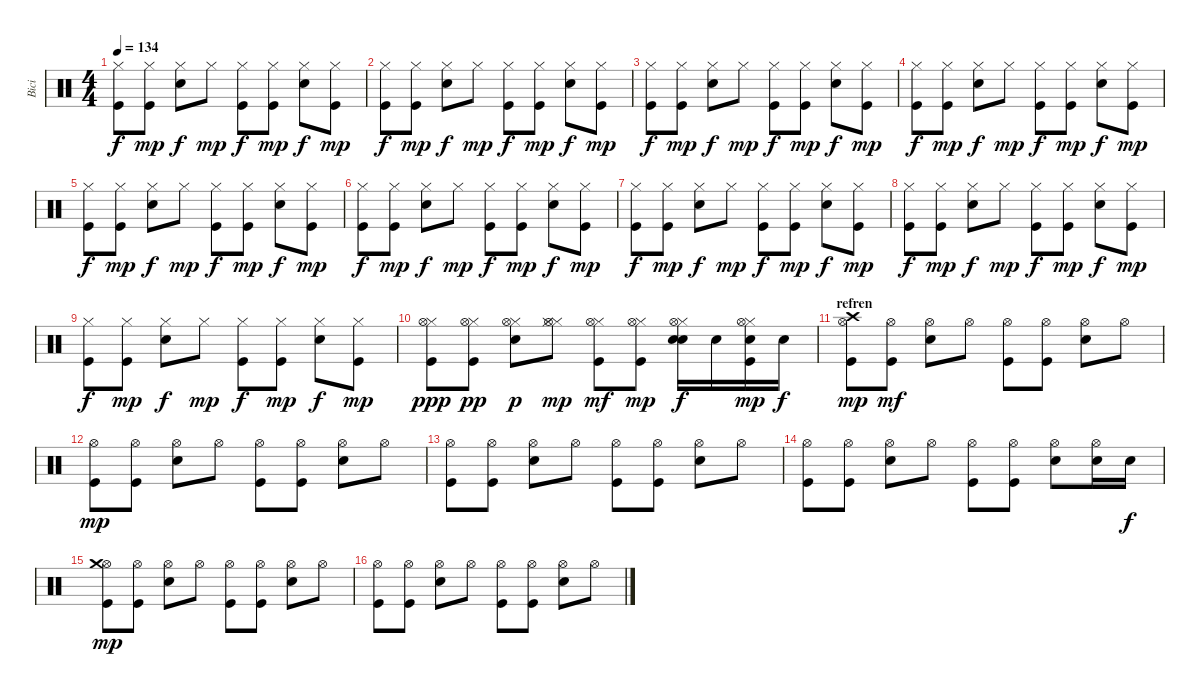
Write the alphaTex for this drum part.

\track ("Bici" "Bici") {instrument percussion}
\staff {score}
\articulation defaults
\ts (4 4)
\tempo 134
\clef neutral
\ks c
("Kick (hit)" "Hi-Hat (closed)").8{dy f} ("Kick (hit)" "Hi-Hat (closed)").8{dy mp} ("Snare (hit) 2" "Hi-Hat (closed)").8{dy f} "Hi-Hat (closed)".8{dy mp} ("Kick (hit)" "Hi-Hat (closed)").8{dy f} ("Kick (hit)" "Hi-Hat (closed)").8{dy mp} ("Snare (hit) 2" "Hi-Hat (closed)").8{dy f} ("Kick (hit)" "Hi-Hat (closed)").8{dy mp} |
("Kick (hit)" "Hi-Hat (closed)").8{dy f} ("Kick (hit)" "Hi-Hat (closed)").8{dy mp} ("Snare (hit) 2" "Hi-Hat (closed)").8{dy f} "Hi-Hat (closed)".8{dy mp} ("Kick (hit)" "Hi-Hat (closed)").8{dy f} ("Kick (hit)" "Hi-Hat (closed)").8{dy mp} ("Snare (hit) 2" "Hi-Hat (closed)").8{dy f} ("Kick (hit)" "Hi-Hat (closed)").8{dy mp} |
("Kick (hit)" "Hi-Hat (closed)").8{dy f} ("Kick (hit)" "Hi-Hat (closed)").8{dy mp} ("Snare (hit) 2" "Hi-Hat (closed)").8{dy f} "Hi-Hat (closed)".8{dy mp} ("Kick (hit)" "Hi-Hat (closed)").8{dy f} ("Kick (hit)" "Hi-Hat (closed)").8{dy mp} ("Snare (hit) 2" "Hi-Hat (closed)").8{dy f} ("Kick (hit)" "Hi-Hat (closed)").8{dy mp} |
("Kick (hit)" "Hi-Hat (closed)").8{dy f} ("Kick (hit)" "Hi-Hat (closed)").8{dy mp} ("Snare (hit) 2" "Hi-Hat (closed)").8{dy f} "Hi-Hat (closed)".8{dy mp} ("Kick (hit)" "Hi-Hat (closed)").8{dy f} ("Kick (hit)" "Hi-Hat (closed)").8{dy mp} ("Snare (hit) 2" "Hi-Hat (closed)").8{dy f} ("Kick (hit)" "Hi-Hat (closed)").8{dy mp} |
("Kick (hit)" "Hi-Hat (closed)").8{dy f} ("Kick (hit)" "Hi-Hat (closed)").8{dy mp} ("Snare (hit) 2" "Hi-Hat (closed)").8{dy f} "Hi-Hat (closed)".8{dy mp} ("Kick (hit)" "Hi-Hat (closed)").8{dy f} ("Kick (hit)" "Hi-Hat (closed)").8{dy mp} ("Snare (hit) 2" "Hi-Hat (closed)").8{dy f} ("Kick (hit)" "Hi-Hat (closed)").8{dy mp} |
("Kick (hit)" "Hi-Hat (closed)").8{dy f} ("Kick (hit)" "Hi-Hat (closed)").8{dy mp} ("Snare (hit) 2" "Hi-Hat (closed)").8{dy f} "Hi-Hat (closed)".8{dy mp} ("Kick (hit)" "Hi-Hat (closed)").8{dy f} ("Kick (hit)" "Hi-Hat (closed)").8{dy mp} ("Snare (hit) 2" "Hi-Hat (closed)").8{dy f} ("Kick (hit)" "Hi-Hat (closed)").8{dy mp} |
("Kick (hit)" "Hi-Hat (closed)").8{dy f} ("Kick (hit)" "Hi-Hat (closed)").8{dy mp} ("Snare (hit) 2" "Hi-Hat (closed)").8{dy f} "Hi-Hat (closed)".8{dy mp} ("Kick (hit)" "Hi-Hat (closed)").8{dy f} ("Kick (hit)" "Hi-Hat (closed)").8{dy mp} ("Snare (hit) 2" "Hi-Hat (closed)").8{dy f} ("Kick (hit)" "Hi-Hat (closed)").8{dy mp} |
("Kick (hit)" "Hi-Hat (closed)").8{dy f} ("Kick (hit)" "Hi-Hat (closed)").8{dy mp} ("Snare (hit) 2" "Hi-Hat (closed)").8{dy f} "Hi-Hat (closed)".8{dy mp} ("Kick (hit)" "Hi-Hat (closed)").8{dy f} ("Kick (hit)" "Hi-Hat (closed)").8{dy mp} ("Snare (hit) 2" "Hi-Hat (closed)").8{dy f} ("Kick (hit)" "Hi-Hat (closed)").8{dy mp} |
("Kick (hit)" "Hi-Hat (closed)").8{dy f} ("Kick (hit)" "Hi-Hat (closed)").8{dy mp} ("Snare (hit) 2" "Hi-Hat (closed)").8{dy f} "Hi-Hat (closed)".8{dy mp} ("Kick (hit)" "Hi-Hat (closed)").8{dy f} ("Kick (hit)" "Hi-Hat (closed)").8{dy mp} ("Snare (hit) 2" "Hi-Hat (closed)").8{dy f} ("Kick (hit)" "Hi-Hat (closed)").8{dy mp} |
("Kick (hit)" "Hi-Hat (closed)" "Hi-Hat (open)").8{dy ppp} ("Kick (hit)" "Hi-Hat (closed)" "Hi-Hat (open)").8{dy pp} ("Snare (hit) 2" "Hi-Hat (closed)" "Hi-Hat (open)").8{dy p} ("Hi-Hat (closed)" "Hi-Hat (closed)" "Hi-Hat (open)").8{dy mp} ("Kick (hit)" "Hi-Hat (closed)" "Hi-Hat (open)").8{dy mf} ("Kick (hit)" "Hi-Hat (closed)" "Hi-Hat (open)").8{dy mp} ("Snare (hit) 2" "Hi-Hat (closed)" "Hi-Hat (open)" "Snare (hit) 2").16{dy f} "Snare (hit) 2".16 ("Kick (hit)" "Hi-Hat (closed)" "Hi-Hat (open)" "Electric Snare (hit)").16{dy mp} "Electric Snare (hit)".16{dy f} |
\section ("" "refren")
("Kick (hit)" "Hi-Hat (open)" "Crash high (hit)").8{dy mp} ("Kick (hit)" "Hi-Hat (open)").8{dy mf} ("Electric Snare (hit)" "Hi-Hat (open)").8 "Hi-Hat (open)".8 ("Kick (hit)" "Hi-Hat (open)").8 ("Kick (hit)" "Hi-Hat (open)").8 ("Electric Snare (hit)" "Hi-Hat (open)").8 "Hi-Hat (open)".8 |
("Kick (hit)" "Hi-Hat (open)").8{dy mp} ("Kick (hit)" "Hi-Hat (open)").8 ("Electric Snare (hit)" "Hi-Hat (open)").8 "Hi-Hat (open)".8 ("Kick (hit)" "Hi-Hat (open)").8 ("Kick (hit)" "Hi-Hat (open)").8 ("Electric Snare (hit)" "Hi-Hat (open)").8 "Hi-Hat (open)".8 |
("Kick (hit)" "Hi-Hat (open)").8 ("Kick (hit)" "Hi-Hat (open)").8 ("Electric Snare (hit)" "Hi-Hat (open)").8 "Hi-Hat (open)".8 ("Kick (hit)" "Hi-Hat (open)").8 ("Kick (hit)" "Hi-Hat (open)").8 ("Electric Snare (hit)" "Hi-Hat (open)").8 "Hi-Hat (open)".8 |
("Kick (hit)" "Hi-Hat (open)").8 ("Kick (hit)" "Hi-Hat (open)").8 ("Electric Snare (hit)" "Hi-Hat (open)").8 "Hi-Hat (open)".8 ("Kick (hit)" "Hi-Hat (open)").8 ("Kick (hit)" "Hi-Hat (open)").8 ("Electric Snare (hit)" "Hi-Hat (open)").8 ("Electric Snare (hit)" "Hi-Hat (open)").16 "Electric Snare (hit)".16{dy f} |
("Kick (hit)" "Hi-Hat (open)" "Crash medium (hit)").8{dy mp} ("Kick (hit)" "Hi-Hat (open)").8 ("Electric Snare (hit)" "Hi-Hat (open)").8 "Hi-Hat (open)".8 ("Kick (hit)" "Hi-Hat (open)").8 ("Kick (hit)" "Hi-Hat (open)").8 ("Electric Snare (hit)" "Hi-Hat (open)").8 "Hi-Hat (open)".8 |
("Kick (hit)" "Hi-Hat (open)").8 ("Kick (hit)" "Hi-Hat (open)").8 ("Electric Snare (hit)" "Hi-Hat (open)").8 "Hi-Hat (open)".8 ("Kick (hit)" "Hi-Hat (open)").8 ("Kick (hit)" "Hi-Hat (open)").8 ("Electric Snare (hit)" "Hi-Hat (open)").8 "Hi-Hat (open)".8
